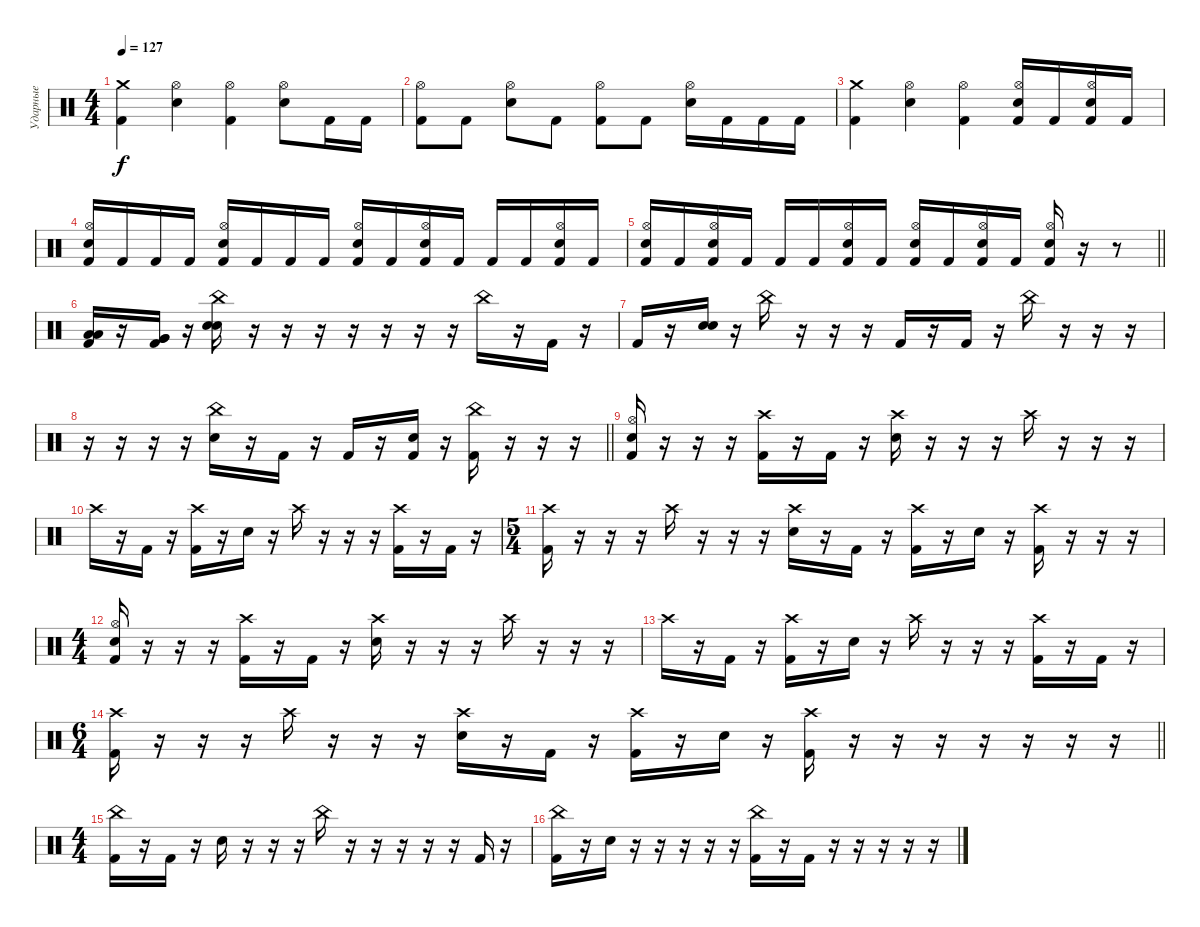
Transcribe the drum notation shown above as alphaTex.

\track ("Ударные" "Ударные") {instrument percussion}
\staff {score}
\articulation defaults
\ts (4 4)
\tempo 127
\clef neutral
\ks c
("Crash medium (hit)" "Kick (hit) 2").4{dy f} ("Hi-Hat (open)" "Electric Snare (hit)").4 ("Hi-Hat (open)" "Kick (hit) 2").4 ("Hi-Hat (open)" "Electric Snare (hit)").8 "Kick (hit) 2".16 "Kick (hit) 2".16 |
("Hi-Hat (open)" "Kick (hit) 2").8 "Kick (hit) 2".8 ("Hi-Hat (open)" "Electric Snare (hit)").8 "Kick (hit) 2".8 ("Hi-Hat (open)" "Kick (hit) 2").8 "Kick (hit) 2".8 ("Hi-Hat (open)" "Electric Snare (hit)").16 "Kick (hit) 2".16 "Kick (hit) 2".16 "Kick (hit) 2".16 |
("Crash medium (hit)" "Kick (hit) 2").4 ("Hi-Hat (open)" "Electric Snare (hit)").4 ("Hi-Hat (open)" "Kick (hit) 2").4 ("Hi-Hat (open)" "Electric Snare (hit)" "Kick (hit) 2").16 "Kick (hit) 2".16 ("Hi-Hat (open)" "Electric Snare (hit)" "Kick (hit) 2").16 "Kick (hit) 2".16 |
("Hi-Hat (open)" "Electric Snare (hit)" "Kick (hit) 2").16 "Kick (hit) 2".16 "Kick (hit) 2".16 "Kick (hit) 2".16 ("Hi-Hat (open)" "Electric Snare (hit)" "Kick (hit) 2").16 "Kick (hit) 2".16 "Kick (hit) 2".16 "Kick (hit) 2".16 ("Hi-Hat (open)" "Electric Snare (hit)" "Kick (hit) 2").16 "Kick (hit) 2".16 ("Hi-Hat (open)" "Electric Snare (hit)" "Kick (hit) 2").16 "Kick (hit) 2".16 "Kick (hit) 2".16 "Kick (hit) 2".16 ("Hi-Hat (open)" "Electric Snare (hit)" "Kick (hit) 2").16 "Kick (hit) 2".16 |
\barLineRight lightlight
("Hi-Hat (open)" "Electric Snare (hit)" "Kick (hit) 2").16 "Kick (hit) 2".16 ("Hi-Hat (open)" "Electric Snare (hit)" "Kick (hit) 2").16 "Kick (hit) 2".16 "Kick (hit) 2".16 "Kick (hit) 2".16 ("Hi-Hat (open)" "Electric Snare (hit)" "Kick (hit) 2").16 "Kick (hit) 2".16 ("Hi-Hat (open)" "Electric Snare (hit)" "Kick (hit) 2").16 "Kick (hit) 2".16 ("Hi-Hat (open)" "Electric Snare (hit)" "Kick (hit) 2").16 "Kick (hit) 2".16 ("Hi-Hat (open)" "Electric Snare (hit)" "Kick (hit) 2").16 r.16 r.8 |
\section ("" "")
("Low Tom (hit)" "Low Tom (hit)" "Kick (hit) 2").16 r.16 ("Very Low Tom (hit)" "Very Low Tom (hit)" "Kick (hit) 2").16 r.16 ("China (hit)" "Electric Snare (hit)" "Electric Snare (hit)").16 r.16 r.16 r.16 r.16 r.16 r.16 r.16 "China (hit)".16 r.16 "Kick (hit) 2".16 r.16 |
"Kick (hit) 2".16 r.16 ("Electric Snare (hit)" "Electric Snare (hit)").16 r.16 "China (hit)".16 r.16 r.16 r.16 "Kick (hit) 2".16 r.16 "Kick (hit) 2".16 r.16 "China (hit)".16 r.16 r.16 r.16 |
\barLineRight lightlight
r.16 r.16 r.16 r.16 ("China (hit)" "Electric Snare (hit)").16 r.16 "Kick (hit) 2".16 r.16 "Kick (hit) 2".16 r.16 ("Electric Snare (hit)" "Kick (hit) 2").16 r.16 ("China (hit)" "Kick (hit) 2").16 r.16 r.16 r.16 |
\section ("" "")
("Hi-Hat (open)" "Electric Snare (hit)" "Kick (hit) 2").16 r.16 r.16 r.16 ("Crash high (hit)" "Kick (hit) 2").16 r.16 "Kick (hit) 2".16 r.16 ("Crash high (hit)" "Electric Snare (hit)").16 r.16 r.16 r.16 "Crash high (hit)".16 r.16 r.16 r.16 |
"Crash high (hit)".16 r.16 "Kick (hit) 2".16 r.16 ("Crash high (hit)" "Kick (hit) 2").16 r.16 "Electric Snare (hit)".16 r.16 "Crash high (hit)".16 r.16 r.16 r.16 ("Crash high (hit)" "Kick (hit) 2").16 r.16 "Kick (hit) 2".16 r.16 |
\ts (5 4)
("Crash high (hit)" "Kick (hit) 2").16 r.16 r.16 r.16 "Crash high (hit)".16 r.16 r.16 r.16 ("Crash high (hit)" "Electric Snare (hit)").16 r.16 "Kick (hit) 2".16 r.16 ("Crash high (hit)" "Kick (hit) 2").16 r.16 "Electric Snare (hit)".16 r.16 ("Crash high (hit)" "Kick (hit) 2").16 r.16 r.16 r.16 |
\ts (4 4)
("Hi-Hat (open)" "Electric Snare (hit)" "Kick (hit) 2").16 r.16 r.16 r.16 ("Crash high (hit)" "Kick (hit) 2").16 r.16 "Kick (hit) 2".16 r.16 ("Crash high (hit)" "Electric Snare (hit)").16 r.16 r.16 r.16 "Crash high (hit)".16 r.16 r.16 r.16 |
"Crash high (hit)".16 r.16 "Kick (hit) 2".16 r.16 ("Crash high (hit)" "Kick (hit) 2").16 r.16 "Electric Snare (hit)".16 r.16 "Crash high (hit)".16 r.16 r.16 r.16 ("Crash high (hit)" "Kick (hit) 2").16 r.16 "Kick (hit) 2".16 r.16 |
\ts (6 4)
\barLineRight lightlight
("Crash high (hit)" "Kick (hit) 2").16 r.16 r.16 r.16 "Crash high (hit)".16 r.16 r.16 r.16 ("Crash high (hit)" "Electric Snare (hit)").16 r.16 "Kick (hit) 2".16 r.16 ("Crash high (hit)" "Kick (hit) 2").16 r.16 "Electric Snare (hit)".16 r.16 ("Crash high (hit)" "Kick (hit) 2").16 r.16 r.16 r.16 r.16 r.16 r.16 r.16 |
\ts (4 4)
\section ("" "")
("China (hit)" "Kick (hit) 2").16 r.16 "Kick (hit) 2".16 r.16 "Electric Snare (hit)".16 r.16 r.16 r.16 "China (hit)".16 r.16 r.16 r.16 r.16 r.16 "Kick (hit) 2".16 r.16 |
("China (hit)" "Kick (hit) 2").16 r.16 "Electric Snare (hit)".16 r.16 r.16 r.16 r.16 r.16 ("China (hit)" "Kick (hit) 2").16 r.16 "Kick (hit) 2".16 r.16 r.16 r.16 r.16 r.16
